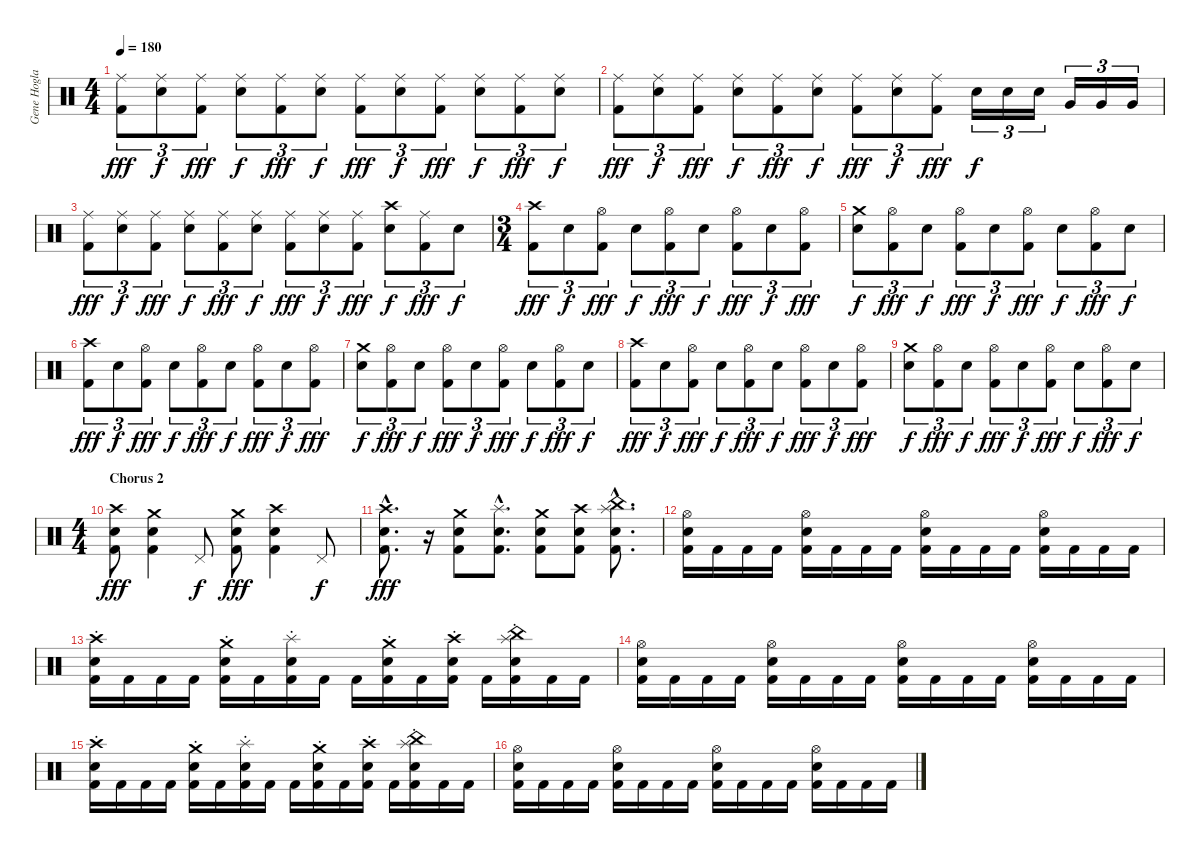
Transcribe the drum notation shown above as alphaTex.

\track ("Gene Hoglan" "Gene Hogla") {instrument percussion}
\staff {score}
\articulation defaults
\ts (4 4)
\tempo 180
\clef neutral
\ks c
("Ride (middle)" "Kick (hit) 2").8{tu (3 2) dy fff} ("Snare (hit) 2" "Ride (middle)").8{tu (3 2) dy f} ("Ride (middle)" "Kick (hit) 2").8{tu (3 2) dy fff} ("Snare (hit) 2" "Ride (middle)").8{tu (3 2) dy f} ("Ride (middle)" "Kick (hit) 2").8{tu (3 2) dy fff} ("Snare (hit) 2" "Ride (middle)").8{tu (3 2) dy f} ("Ride (middle)" "Kick (hit) 2").8{tu (3 2) dy fff} ("Snare (hit) 2" "Ride (middle)").8{tu (3 2) dy f} ("Ride (middle)" "Kick (hit) 2").8{tu (3 2) dy fff} ("Snare (hit) 2" "Ride (middle)").8{tu (3 2) dy f} ("Ride (middle)" "Kick (hit) 2").8{tu (3 2) dy fff} ("Snare (hit) 2" "Ride (middle)").8{tu (3 2) dy f} |
("Ride (middle)" "Kick (hit) 2").8{tu (3 2) dy fff} ("Snare (hit) 2" "Ride (middle)").8{tu (3 2) dy f} ("Ride (middle)" "Kick (hit) 2").8{tu (3 2) dy fff} ("Snare (hit) 2" "Ride (middle)").8{tu (3 2) dy f} ("Ride (middle)" "Kick (hit) 2").8{tu (3 2) dy fff} ("Snare (hit) 2" "Ride (middle)").8{tu (3 2) dy f} ("Ride (middle)" "Kick (hit) 2").8{tu (3 2) dy fff} ("Snare (hit) 2" "Ride (middle)").8{tu (3 2) dy f} ("Ride (middle)" "Kick (hit) 2").8{tu (3 2) dy fff} "Snare (hit) 2".16{tu (3 2) dy f} "Snare (hit) 2".16{tu (3 2)} "Snare (hit) 2".16{tu (3 2)} "Very Low Tom (hit)".16{tu (3 2)} "Very Low Tom (hit)".16{tu (3 2)} "Very Low Tom (hit)".16{tu (3 2)} |
("Ride (middle)" "Kick (hit) 2").8{tu (3 2) dy fff} ("Snare (hit) 2" "Ride (middle)").8{tu (3 2) dy f} ("Ride (middle)" "Kick (hit) 2").8{tu (3 2) dy fff} ("Snare (hit) 2" "Ride (middle)").8{tu (3 2) dy f} ("Ride (middle)" "Kick (hit) 2").8{tu (3 2) dy fff} ("Snare (hit) 2" "Ride (middle)").8{tu (3 2) dy f} ("Ride (middle)" "Kick (hit) 2").8{tu (3 2) dy fff} ("Snare (hit) 2" "Ride (middle)").8{tu (3 2) dy f} ("Ride (middle)" "Kick (hit) 2").8{tu (3 2) dy fff} ("Crash high (hit)" "Snare (hit) 2").8{tu (3 2) dy f} ("Ride (middle)" "Kick (hit) 2").8{tu (3 2) dy fff} "Snare (hit) 2".8{tu (3 2) dy f} |
\ts (3 4)
("Crash high (hit)" "Kick (hit) 2").8{tu (3 2) dy fff} "Snare (hit) 2".8{tu (3 2) dy f} ("Hi-Hat (open)" "Kick (hit) 2").8{tu (3 2) dy fff} "Snare (hit) 2".8{tu (3 2) dy f} ("Hi-Hat (open)" "Kick (hit) 2").8{tu (3 2) dy fff} "Snare (hit) 2".8{tu (3 2) dy f} ("Hi-Hat (open)" "Kick (hit) 2").8{tu (3 2) dy fff} "Snare (hit) 2".8{tu (3 2) dy f} ("Hi-Hat (open)" "Kick (hit) 2").8{tu (3 2) dy fff} |
("Crash medium (hit)" "Snare (hit) 2").8{tu (3 2) dy f} ("Hi-Hat (open)" "Kick (hit) 2").8{tu (3 2) dy fff} "Snare (hit) 2".8{tu (3 2) dy f} ("Hi-Hat (open)" "Kick (hit) 2").8{tu (3 2) dy fff} "Snare (hit) 2".8{tu (3 2) dy f} ("Hi-Hat (open)" "Kick (hit) 2").8{tu (3 2) dy fff} "Snare (hit) 2".8{tu (3 2) dy f} ("Hi-Hat (open)" "Kick (hit) 2").8{tu (3 2) dy fff} "Snare (hit) 2".8{tu (3 2) dy f} |
("Crash high (hit)" "Kick (hit) 2").8{tu (3 2) dy fff} "Snare (hit) 2".8{tu (3 2) dy f} ("Hi-Hat (open)" "Kick (hit) 2").8{tu (3 2) dy fff} "Snare (hit) 2".8{tu (3 2) dy f} ("Hi-Hat (open)" "Kick (hit) 2").8{tu (3 2) dy fff} "Snare (hit) 2".8{tu (3 2) dy f} ("Hi-Hat (open)" "Kick (hit) 2").8{tu (3 2) dy fff} "Snare (hit) 2".8{tu (3 2) dy f} ("Hi-Hat (open)" "Kick (hit) 2").8{tu (3 2) dy fff} |
("Crash medium (hit)" "Snare (hit) 2").8{tu (3 2) dy f} ("Hi-Hat (open)" "Kick (hit) 2").8{tu (3 2) dy fff} "Snare (hit) 2".8{tu (3 2) dy f} ("Hi-Hat (open)" "Kick (hit) 2").8{tu (3 2) dy fff} "Snare (hit) 2".8{tu (3 2) dy f} ("Hi-Hat (open)" "Kick (hit) 2").8{tu (3 2) dy fff} "Snare (hit) 2".8{tu (3 2) dy f} ("Hi-Hat (open)" "Kick (hit) 2").8{tu (3 2) dy fff} "Snare (hit) 2".8{tu (3 2) dy f} |
("Crash high (hit)" "Kick (hit) 2").8{tu (3 2) dy fff} "Snare (hit) 2".8{tu (3 2) dy f} ("Hi-Hat (open)" "Kick (hit) 2").8{tu (3 2) dy fff} "Snare (hit) 2".8{tu (3 2) dy f} ("Hi-Hat (open)" "Kick (hit) 2").8{tu (3 2) dy fff} "Snare (hit) 2".8{tu (3 2) dy f} ("Hi-Hat (open)" "Kick (hit) 2").8{tu (3 2) dy fff} "Snare (hit) 2".8{tu (3 2) dy f} ("Hi-Hat (open)" "Kick (hit) 2").8{tu (3 2) dy fff} |
("Crash medium (hit)" "Snare (hit) 2").8{tu (3 2) dy f} ("Hi-Hat (open)" "Kick (hit) 2").8{tu (3 2) dy fff} "Snare (hit) 2".8{tu (3 2) dy f} ("Hi-Hat (open)" "Kick (hit) 2").8{tu (3 2) dy fff} "Snare (hit) 2".8{tu (3 2) dy f} ("Hi-Hat (open)" "Kick (hit) 2").8{tu (3 2) dy fff} "Snare (hit) 2".8{tu (3 2) dy f} ("Hi-Hat (open)" "Kick (hit) 2").8{tu (3 2) dy fff} "Snare (hit) 2".8{tu (3 2) dy f} |
\ts (4 4)
\section ("" "Chorus 2")
("Crash high (hit)" "Snare (hit) 2" "Kick (hit) 2").8{dy fff} ("Crash medium (hit)" "Snare (hit) 2" "Kick (hit) 2").4 "Pedal Hi-Hat (hit)".8{dy f} ("Crash medium (hit)" "Snare (hit) 2" "Kick (hit) 2").8{dy fff} ("Crash high (hit)" "Snare (hit) 2" "Kick (hit) 2").4 "Pedal Hi-Hat (hit)".8{dy f} |
("Crash high (hit)"{hac} "Snare (hit) 2"{hac} "Kick (hit) 2"{hac}).8{d dy fff} r.16 ("Crash medium (hit)" "Snare (hit) 2" "Kick (hit) 2").8 ("Splash (hit)"{hac} "Snare (hit) 2"{hac} "Kick (hit) 2"{hac}).8{d} ("Crash medium (hit)" "Snare (hit) 2" "Kick (hit) 2").8 ("Crash high (hit)" "Snare (hit) 2" "Kick (hit) 2").8 ("China (hit)"{hac} "Splash (hit)"{hac} "Snare (hit) 2"{hac} "Kick (hit) 2"{hac}).8{d} |
("Hi-Hat (open)" "Snare (hit) 2" "Kick (hit) 2").16 "Kick (hit) 2".16 "Kick (hit) 2".16 "Kick (hit) 2".16 ("Hi-Hat (open)" "Snare (hit) 2" "Kick (hit) 2").16 "Kick (hit) 2".16 "Kick (hit) 2".16 "Kick (hit) 2".16 ("Hi-Hat (open)" "Snare (hit) 2" "Kick (hit) 2").16 "Kick (hit) 2".16 "Kick (hit) 2".16 "Kick (hit) 2".16 ("Hi-Hat (open)" "Snare (hit) 2" "Kick (hit) 2").16 "Kick (hit) 2".16 "Kick (hit) 2".16 "Kick (hit) 2".16 |
("Crash high (hit)"{st} "Snare (hit) 2" "Kick (hit) 2").16 "Kick (hit) 2".16 "Kick (hit) 2".16 "Kick (hit) 2".16 ("Crash medium (hit)"{st} "Snare (hit) 2" "Kick (hit) 2").16 "Kick (hit) 2".16 ("Splash (hit)"{st} "Snare (hit) 2" "Kick (hit) 2").16 "Kick (hit) 2".16 "Kick (hit) 2".16 ("Crash medium (hit)"{st} "Snare (hit) 2" "Kick (hit) 2").16 "Kick (hit) 2".16 ("Crash high (hit)"{st} "Snare (hit) 2" "Kick (hit) 2").16 "Kick (hit) 2".16 ("China (hit)"{st} "Splash (hit)"{st} "Snare (hit) 2" "Kick (hit) 2").16 "Kick (hit) 2".16 "Kick (hit) 2".16 |
("Hi-Hat (open)" "Snare (hit) 2" "Kick (hit) 2").16 "Kick (hit) 2".16 "Kick (hit) 2".16 "Kick (hit) 2".16 ("Hi-Hat (open)" "Snare (hit) 2" "Kick (hit) 2").16 "Kick (hit) 2".16 "Kick (hit) 2".16 "Kick (hit) 2".16 ("Hi-Hat (open)" "Snare (hit) 2" "Kick (hit) 2").16 "Kick (hit) 2".16 "Kick (hit) 2".16 "Kick (hit) 2".16 ("Hi-Hat (open)" "Snare (hit) 2" "Kick (hit) 2").16 "Kick (hit) 2".16 "Kick (hit) 2".16 "Kick (hit) 2".16 |
("Crash high (hit)"{st} "Snare (hit) 2" "Kick (hit) 2").16 "Kick (hit) 2".16 "Kick (hit) 2".16 "Kick (hit) 2".16 ("Crash medium (hit)"{st} "Snare (hit) 2" "Kick (hit) 2").16 "Kick (hit) 2".16 ("Splash (hit)"{st} "Snare (hit) 2" "Kick (hit) 2").16 "Kick (hit) 2".16 "Kick (hit) 2".16 ("Crash medium (hit)"{st} "Snare (hit) 2" "Kick (hit) 2").16 "Kick (hit) 2".16 ("Crash high (hit)"{st} "Snare (hit) 2" "Kick (hit) 2").16 "Kick (hit) 2".16 ("China (hit)"{st} "Splash (hit)"{st} "Snare (hit) 2" "Kick (hit) 2").16 "Kick (hit) 2".16 "Kick (hit) 2".16 |
("Hi-Hat (open)" "Snare (hit) 2" "Kick (hit) 2").16 "Kick (hit) 2".16 "Kick (hit) 2".16 "Kick (hit) 2".16 ("Hi-Hat (open)" "Snare (hit) 2" "Kick (hit) 2").16 "Kick (hit) 2".16 "Kick (hit) 2".16 "Kick (hit) 2".16 ("Hi-Hat (open)" "Snare (hit) 2" "Kick (hit) 2").16 "Kick (hit) 2".16 "Kick (hit) 2".16 "Kick (hit) 2".16 ("Hi-Hat (open)" "Snare (hit) 2" "Kick (hit) 2").16 "Kick (hit) 2".16 "Kick (hit) 2".16 "Kick (hit) 2".16
